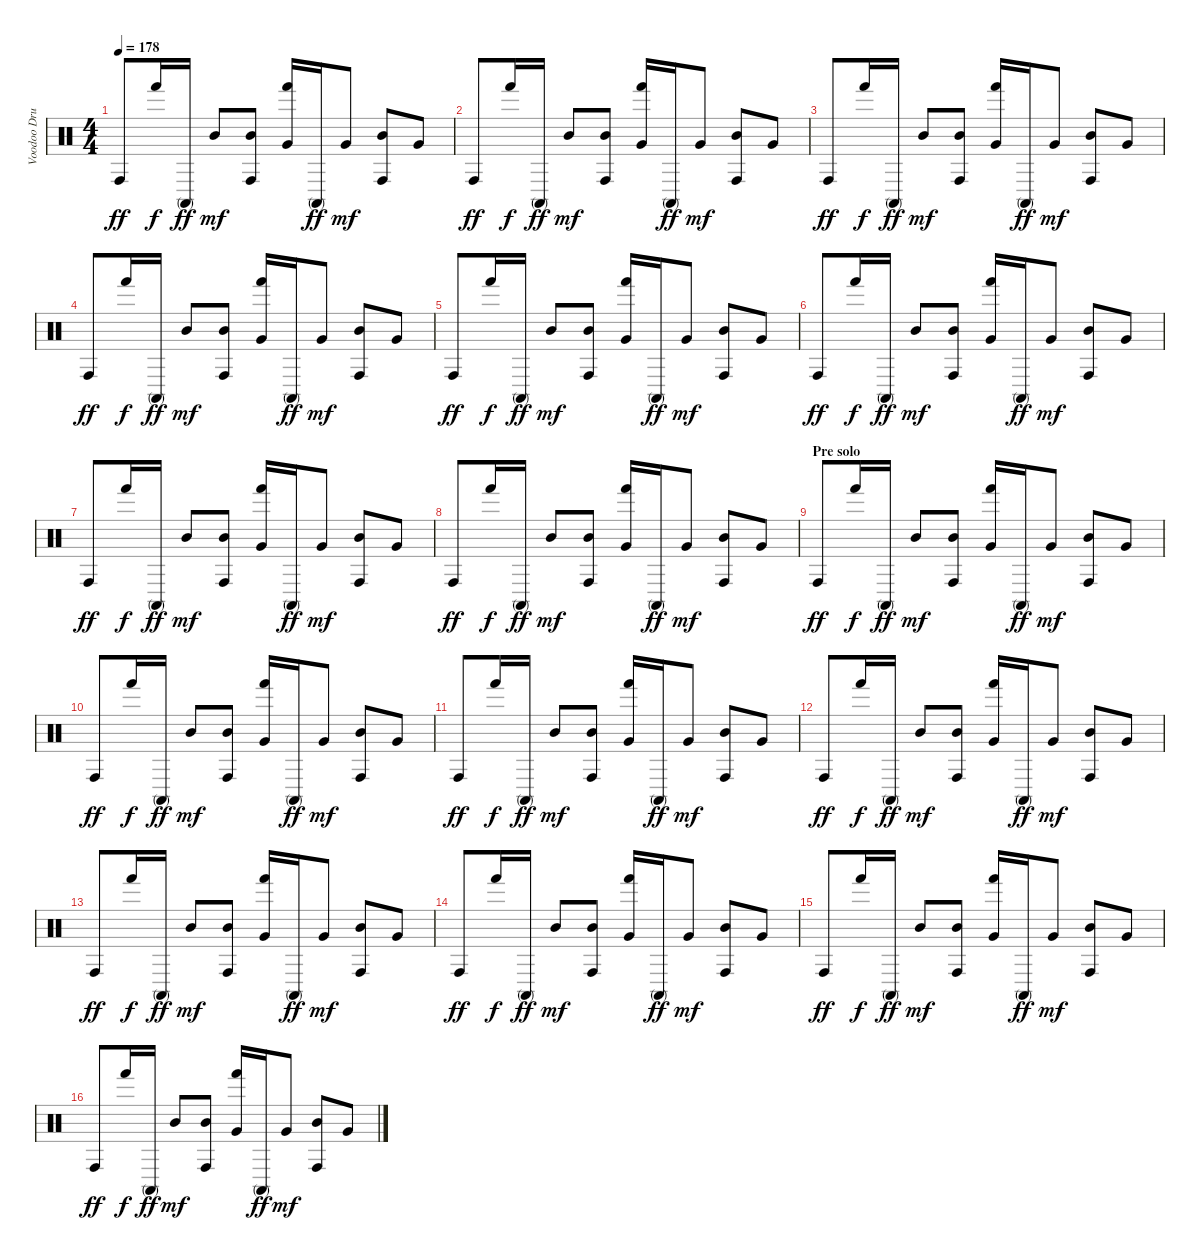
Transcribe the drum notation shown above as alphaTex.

\track ("Voodoo Drums" "Voodoo Dru") {instrument percussion}
\staff {score}
\articulation defaults
\ts (4 4)
\tempo 178
\clef neutral
\ks c "Conga high (hit)".8{dy ff} "Hand (hit)".16{dy f} "Conga high (mute)".16{dy ff} "Mid Tom (hit)".8{dy mf}
("Conga high (hit)" "Mid Tom (hit)").8 ("Hand (hit)" "Very Low Tom (hit)").16 "Conga high (mute)".16{dy ff} "Very Low Tom (hit)".8{dy mf} ("Conga high (hit)" "Mid Tom (hit)").8 "Very Low Tom (hit)".8 |
"Conga high (hit)".8{dy ff} "Hand (hit)".16{dy f} "Conga high (mute)".16{dy ff} "Mid Tom (hit)".8{dy mf} ("Conga high (hit)" "Mid Tom (hit)").8 ("Hand (hit)" "Very Low Tom (hit)").16 "Conga high (mute)".16{dy ff} "Very Low Tom (hit)".8{dy mf} ("Conga high (hit)" "Mid Tom (hit)").8 "Very Low Tom (hit)".8 |
"Conga high (hit)".8{dy ff} "Hand (hit)".16{dy f} "Conga high (mute)".16{dy ff} "Mid Tom (hit)".8{dy mf} ("Conga high (hit)" "Mid Tom (hit)").8 ("Hand (hit)" "Very Low Tom (hit)").16 "Conga high (mute)".16{dy ff} "Very Low Tom (hit)".8{dy mf} ("Conga high (hit)" "Mid Tom (hit)").8 "Very Low Tom (hit)".8 |
"Conga high (hit)".8{dy ff} "Hand (hit)".16{dy f} "Conga high (mute)".16{dy ff} "Mid Tom (hit)".8{dy mf} ("Conga high (hit)" "Mid Tom (hit)").8 ("Hand (hit)" "Very Low Tom (hit)").16 "Conga high (mute)".16{dy ff} "Very Low Tom (hit)".8{dy mf} ("Conga high (hit)" "Mid Tom (hit)").8 "Very Low Tom (hit)".8 |
"Conga high (hit)".8{dy ff} "Hand (hit)".16{dy f} "Conga high (mute)".16{dy ff} "Mid Tom (hit)".8{dy mf} ("Conga high (hit)" "Mid Tom (hit)").8 ("Hand (hit)" "Very Low Tom (hit)").16 "Conga high (mute)".16{dy ff} "Very Low Tom (hit)".8{dy mf} ("Conga high (hit)" "Mid Tom (hit)").8 "Very Low Tom (hit)".8 |
"Conga high (hit)".8{dy ff} "Hand (hit)".16{dy f} "Conga high (mute)".16{dy ff} "Mid Tom (hit)".8{dy mf} ("Conga high (hit)" "Mid Tom (hit)").8 ("Hand (hit)" "Very Low Tom (hit)").16 "Conga high (mute)".16{dy ff} "Very Low Tom (hit)".8{dy mf} ("Conga high (hit)" "Mid Tom (hit)").8 "Very Low Tom (hit)".8 |
"Conga high (hit)".8{dy ff} "Hand (hit)".16{dy f} "Conga high (mute)".16{dy ff} "Mid Tom (hit)".8{dy mf} ("Conga high (hit)" "Mid Tom (hit)").8 ("Hand (hit)" "Very Low Tom (hit)").16 "Conga high (mute)".16{dy ff} "Very Low Tom (hit)".8{dy mf} ("Conga high (hit)" "Mid Tom (hit)").8 "Very Low Tom (hit)".8 |
"Conga high (hit)".8{dy ff} "Hand (hit)".16{dy f} "Conga high (mute)".16{dy ff} "Mid Tom (hit)".8{dy mf} ("Conga high (hit)" "Mid Tom (hit)").8 ("Hand (hit)" "Very Low Tom (hit)").16 "Conga high (mute)".16{dy ff} "Very Low Tom (hit)".8{dy mf} ("Conga high (hit)" "Mid Tom (hit)").8 "Very Low Tom (hit)".8 |
\section ("" "Pre solo")
"Conga high (hit)".8{dy ff} "Hand (hit)".16{dy f} "Conga high (mute)".16{dy ff} "Mid Tom (hit)".8{dy mf} ("Conga high (hit)" "Mid Tom (hit)").8 ("Hand (hit)" "Very Low Tom (hit)").16 "Conga high (mute)".16{dy ff} "Very Low Tom (hit)".8{dy mf} ("Conga high (hit)" "Mid Tom (hit)").8 "Very Low Tom (hit)".8 |
"Conga high (hit)".8{dy ff} "Hand (hit)".16{dy f} "Conga high (mute)".16{dy ff} "Mid Tom (hit)".8{dy mf} ("Conga high (hit)" "Mid Tom (hit)").8 ("Hand (hit)" "Very Low Tom (hit)").16 "Conga high (mute)".16{dy ff} "Very Low Tom (hit)".8{dy mf} ("Conga high (hit)" "Mid Tom (hit)").8 "Very Low Tom (hit)".8 |
"Conga high (hit)".8{dy ff} "Hand (hit)".16{dy f} "Conga high (mute)".16{dy ff} "Mid Tom (hit)".8{dy mf} ("Conga high (hit)" "Mid Tom (hit)").8 ("Hand (hit)" "Very Low Tom (hit)").16 "Conga high (mute)".16{dy ff} "Very Low Tom (hit)".8{dy mf} ("Conga high (hit)" "Mid Tom (hit)").8 "Very Low Tom (hit)".8 |
"Conga high (hit)".8{dy ff} "Hand (hit)".16{dy f} "Conga high (mute)".16{dy ff} "Mid Tom (hit)".8{dy mf} ("Conga high (hit)" "Mid Tom (hit)").8 ("Hand (hit)" "Very Low Tom (hit)").16 "Conga high (mute)".16{dy ff} "Very Low Tom (hit)".8{dy mf} ("Conga high (hit)" "Mid Tom (hit)").8 "Very Low Tom (hit)".8 |
"Conga high (hit)".8{dy ff} "Hand (hit)".16{dy f} "Conga high (mute)".16{dy ff} "Mid Tom (hit)".8{dy mf} ("Conga high (hit)" "Mid Tom (hit)").8 ("Hand (hit)" "Very Low Tom (hit)").16 "Conga high (mute)".16{dy ff} "Very Low Tom (hit)".8{dy mf} ("Conga high (hit)" "Mid Tom (hit)").8 "Very Low Tom (hit)".8 |
"Conga high (hit)".8{dy ff} "Hand (hit)".16{dy f} "Conga high (mute)".16{dy ff} "Mid Tom (hit)".8{dy mf} ("Conga high (hit)" "Mid Tom (hit)").8 ("Hand (hit)" "Very Low Tom (hit)").16 "Conga high (mute)".16{dy ff} "Very Low Tom (hit)".8{dy mf} ("Conga high (hit)" "Mid Tom (hit)").8 "Very Low Tom (hit)".8 |
"Conga high (hit)".8{dy ff} "Hand (hit)".16{dy f} "Conga high (mute)".16{dy ff} "Mid Tom (hit)".8{dy mf} ("Conga high (hit)" "Mid Tom (hit)").8 ("Hand (hit)" "Very Low Tom (hit)").16 "Conga high (mute)".16{dy ff} "Very Low Tom (hit)".8{dy mf} ("Conga high (hit)" "Mid Tom (hit)").8 "Very Low Tom (hit)".8 |
"Conga high (hit)".8{dy ff} "Hand (hit)".16{dy f} "Conga high (mute)".16{dy ff} "Mid Tom (hit)".8{dy mf} ("Conga high (hit)" "Mid Tom (hit)").8 ("Hand (hit)" "Very Low Tom (hit)").16 "Conga high (mute)".16{dy ff} "Very Low Tom (hit)".8{dy mf} ("Conga high (hit)" "Mid Tom (hit)").8 "Very Low Tom (hit)".8
